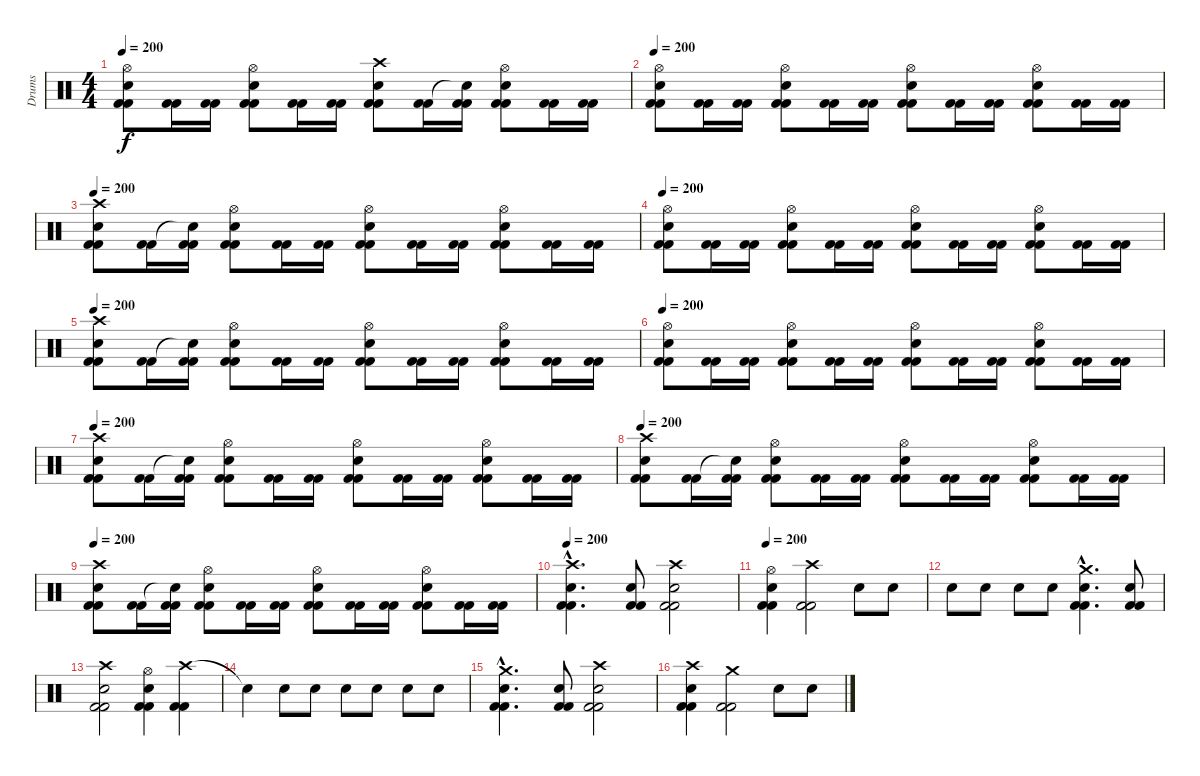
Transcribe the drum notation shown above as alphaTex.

\track ("Drums" "Drums") {instrument percussion}
\staff {score}
\articulation defaults
\ts (4 4)
\tempo 200
\clef neutral
\ks c
("Hi-Hat (open)" "Snare (hit) 2" "Kick (hit) 2" "Kick (hit) 2").8{dy f} ("Kick (hit) 2" "Kick (hit) 2").16 ("Kick (hit) 2" "Kick (hit) 2").16 ("Hi-Hat (open)" "Snare (hit) 2" "Kick (hit) 2" "Kick (hit) 2").8 ("Kick (hit) 2" "Kick (hit) 2").16 ("Kick (hit) 2" "Kick (hit) 2").16 ("Crash high (hit)" "Snare (hit) 2" "Kick (hit) 2" "Kick (hit) 2").8 ("Kick (hit) 2" "Kick (hit) 2").16 ("Snare (hit)"{t} "Kick (hit) 2" "Kick (hit) 2").16 ("Hi-Hat (open)" "Snare (hit) 2" "Kick (hit) 2" "Kick (hit) 2").8 ("Kick (hit) 2" "Kick (hit) 2").16 ("Kick (hit) 2" "Kick (hit) 2").16 |
\tempo 200
("Hi-Hat (open)" "Snare (hit) 2" "Kick (hit) 2" "Kick (hit) 2").8 ("Kick (hit) 2" "Kick (hit) 2").16 ("Kick (hit) 2" "Kick (hit) 2").16 ("Hi-Hat (open)" "Snare (hit) 2" "Kick (hit) 2" "Kick (hit) 2").8 ("Kick (hit) 2" "Kick (hit) 2").16 ("Kick (hit) 2" "Kick (hit) 2").16 ("Hi-Hat (open)" "Snare (hit) 2" "Kick (hit) 2" "Kick (hit) 2").8 ("Kick (hit) 2" "Kick (hit) 2").16 ("Kick (hit) 2" "Kick (hit) 2").16 ("Hi-Hat (open)" "Snare (hit) 2" "Kick (hit) 2" "Kick (hit) 2").8 ("Kick (hit) 2" "Kick (hit) 2").16 ("Kick (hit) 2" "Kick (hit) 2").16 |
\tempo 200
("Crash high (hit)" "Snare (hit) 2" "Kick (hit) 2" "Kick (hit) 2").8 ("Kick (hit) 2" "Kick (hit) 2").16 ("Snare (hit)"{t} "Kick (hit) 2" "Kick (hit) 2").16 ("Hi-Hat (open)" "Snare (hit) 2" "Kick (hit) 2" "Kick (hit) 2").8 ("Kick (hit) 2" "Kick (hit) 2").16 ("Kick (hit) 2" "Kick (hit) 2").16 ("Hi-Hat (open)" "Snare (hit) 2" "Kick (hit) 2" "Kick (hit) 2").8 ("Kick (hit) 2" "Kick (hit) 2").16 ("Kick (hit) 2" "Kick (hit) 2").16 ("Hi-Hat (open)" "Snare (hit) 2" "Kick (hit) 2" "Kick (hit) 2").8 ("Kick (hit) 2" "Kick (hit) 2").16 ("Kick (hit) 2" "Kick (hit) 2").16 |
\tempo 200
("Hi-Hat (open)" "Snare (hit) 2" "Kick (hit) 2" "Kick (hit) 2").8 ("Kick (hit) 2" "Kick (hit) 2").16 ("Kick (hit) 2" "Kick (hit) 2").16 ("Hi-Hat (open)" "Snare (hit) 2" "Kick (hit) 2" "Kick (hit) 2").8 ("Kick (hit) 2" "Kick (hit) 2").16 ("Kick (hit) 2" "Kick (hit) 2").16 ("Hi-Hat (open)" "Snare (hit) 2" "Kick (hit) 2" "Kick (hit) 2").8 ("Kick (hit) 2" "Kick (hit) 2").16 ("Kick (hit) 2" "Kick (hit) 2").16 ("Hi-Hat (open)" "Snare (hit) 2" "Kick (hit) 2" "Kick (hit) 2").8 ("Kick (hit) 2" "Kick (hit) 2").16 ("Kick (hit) 2" "Kick (hit) 2").16 |
\tempo 200
("Crash high (hit)" "Snare (hit) 2" "Kick (hit) 2" "Kick (hit) 2").8 ("Kick (hit) 2" "Kick (hit) 2").16 ("Snare (hit)"{t} "Kick (hit) 2" "Kick (hit) 2").16 ("Hi-Hat (open)" "Snare (hit) 2" "Kick (hit) 2" "Kick (hit) 2").8 ("Kick (hit) 2" "Kick (hit) 2").16 ("Kick (hit) 2" "Kick (hit) 2").16 ("Hi-Hat (open)" "Snare (hit) 2" "Kick (hit) 2" "Kick (hit) 2").8 ("Kick (hit) 2" "Kick (hit) 2").16 ("Kick (hit) 2" "Kick (hit) 2").16 ("Hi-Hat (open)" "Snare (hit) 2" "Kick (hit) 2" "Kick (hit) 2").8 ("Kick (hit) 2" "Kick (hit) 2").16 ("Kick (hit) 2" "Kick (hit) 2").16 |
\tempo 200
("Hi-Hat (open)" "Snare (hit) 2" "Kick (hit) 2" "Kick (hit) 2").8 ("Kick (hit) 2" "Kick (hit) 2").16 ("Kick (hit) 2" "Kick (hit) 2").16 ("Hi-Hat (open)" "Snare (hit) 2" "Kick (hit) 2" "Kick (hit) 2").8 ("Kick (hit) 2" "Kick (hit) 2").16 ("Kick (hit) 2" "Kick (hit) 2").16 ("Hi-Hat (open)" "Snare (hit) 2" "Kick (hit) 2" "Kick (hit) 2").8 ("Kick (hit) 2" "Kick (hit) 2").16 ("Kick (hit) 2" "Kick (hit) 2").16 ("Hi-Hat (open)" "Snare (hit) 2" "Kick (hit) 2" "Kick (hit) 2").8 ("Kick (hit) 2" "Kick (hit) 2").16 ("Kick (hit) 2" "Kick (hit) 2").16 |
\tempo 200
("Crash high (hit)" "Snare (hit) 2" "Kick (hit) 2" "Kick (hit) 2").8 ("Kick (hit) 2" "Kick (hit) 2").16 ("Snare (hit)"{t} "Kick (hit) 2" "Kick (hit) 2").16 ("Hi-Hat (open)" "Snare (hit) 2" "Kick (hit) 2" "Kick (hit) 2").8 ("Kick (hit) 2" "Kick (hit) 2").16 ("Kick (hit) 2" "Kick (hit) 2").16 ("Hi-Hat (open)" "Snare (hit) 2" "Kick (hit) 2" "Kick (hit) 2").8 ("Kick (hit) 2" "Kick (hit) 2").16 ("Kick (hit) 2" "Kick (hit) 2").16 ("Hi-Hat (open)" "Snare (hit) 2" "Kick (hit) 2" "Kick (hit) 2").8 ("Kick (hit) 2" "Kick (hit) 2").16 ("Kick (hit) 2" "Kick (hit) 2").16 |
\tempo 200
("Crash high (hit)" "Snare (hit) 2" "Kick (hit) 2" "Kick (hit) 2").8 ("Kick (hit) 2" "Kick (hit) 2").16 ("Snare (hit)"{t} "Kick (hit) 2" "Kick (hit) 2").16 ("Hi-Hat (open)" "Snare (hit) 2" "Kick (hit) 2" "Kick (hit) 2").8 ("Kick (hit) 2" "Kick (hit) 2").16 ("Kick (hit) 2" "Kick (hit) 2").16 ("Hi-Hat (open)" "Snare (hit) 2" "Kick (hit) 2" "Kick (hit) 2").8 ("Kick (hit) 2" "Kick (hit) 2").16 ("Kick (hit) 2" "Kick (hit) 2").16 ("Hi-Hat (open)" "Snare (hit) 2" "Kick (hit) 2" "Kick (hit) 2").8 ("Kick (hit) 2" "Kick (hit) 2").16 ("Kick (hit) 2" "Kick (hit) 2").16 |
\tempo 200
("Crash high (hit)" "Snare (hit) 2" "Kick (hit) 2" "Kick (hit) 2").8 ("Kick (hit) 2" "Kick (hit) 2").16 ("Snare (hit)"{t} "Kick (hit) 2" "Kick (hit) 2").16 ("Hi-Hat (open)" "Snare (hit) 2" "Kick (hit) 2" "Kick (hit) 2").8 ("Kick (hit) 2" "Kick (hit) 2").16 ("Kick (hit) 2" "Kick (hit) 2").16 ("Hi-Hat (open)" "Snare (hit) 2" "Kick (hit) 2" "Kick (hit) 2").8 ("Kick (hit) 2" "Kick (hit) 2").16 ("Kick (hit) 2" "Kick (hit) 2").16 ("Hi-Hat (open)" "Snare (hit) 2" "Kick (hit) 2" "Kick (hit) 2").8 ("Kick (hit) 2" "Kick (hit) 2").16 ("Kick (hit) 2" "Kick (hit) 2").16 |
\tempo 200
("Crash high (hit)"{hac} "Snare (hit) 2"{hac} "Kick (hit) 2"{hac} "Kick (hit) 2"{hac}).4{d} ("Electric Snare (hit)" "Kick (hit) 2" "Kick (hit) 2").8 ("Crash high (hit)" "Snare (hit) 2" "Kick (hit) 2" "Kick (hit) 2").2 |
\tempo 200
("Hi-Hat (open)" "Snare (hit) 2" "Kick (hit) 2" "Kick (hit) 2").4 ("Crash high (hit)" "Kick (hit) 2" "Kick (hit) 2").2 "Snare (hit) 2".8 "Snare (hit) 2".8 |
"Snare (hit) 2".8 "Snare (hit) 2".8 "Snare (hit) 2".8 "Snare (hit) 2".8 ("Crash medium (hit)"{hac} "Snare (hit) 2"{hac} "Kick (hit) 2"{hac} "Kick (hit) 2"{hac}).4{d} ("Electric Snare (hit)" "Kick (hit) 2" "Kick (hit) 2").8 |
("Crash high (hit)" "Snare (hit) 2" "Kick (hit) 2" "Kick (hit) 2").2 ("Hi-Hat (open)" "Snare (hit) 2" "Kick (hit) 2" "Kick (hit) 2").4 ("Crash high (hit)" "Kick (hit) 2" "Kick (hit) 2").4 |
"Snare (hit)"{t}.4 "Snare (hit) 2".8 "Snare (hit) 2".8 "Snare (hit) 2".8 "Snare (hit) 2".8 "Snare (hit) 2".8 "Snare (hit) 2".8 |
("Crash medium (hit)"{hac} "Snare (hit) 2"{hac} "Kick (hit) 2"{hac} "Kick (hit) 2"{hac}).4{d} ("Electric Snare (hit)" "Kick (hit) 2" "Kick (hit) 2").8 ("Crash high (hit)" "Snare (hit) 2" "Kick (hit) 2" "Kick (hit) 2").2 |
("Crash high (hit)" "Snare (hit) 2" "Kick (hit) 2" "Kick (hit) 2").4 ("Crash medium (hit)" "Kick (hit) 2" "Kick (hit) 2").2 "Snare (hit) 2".8 "Snare (hit) 2".8
